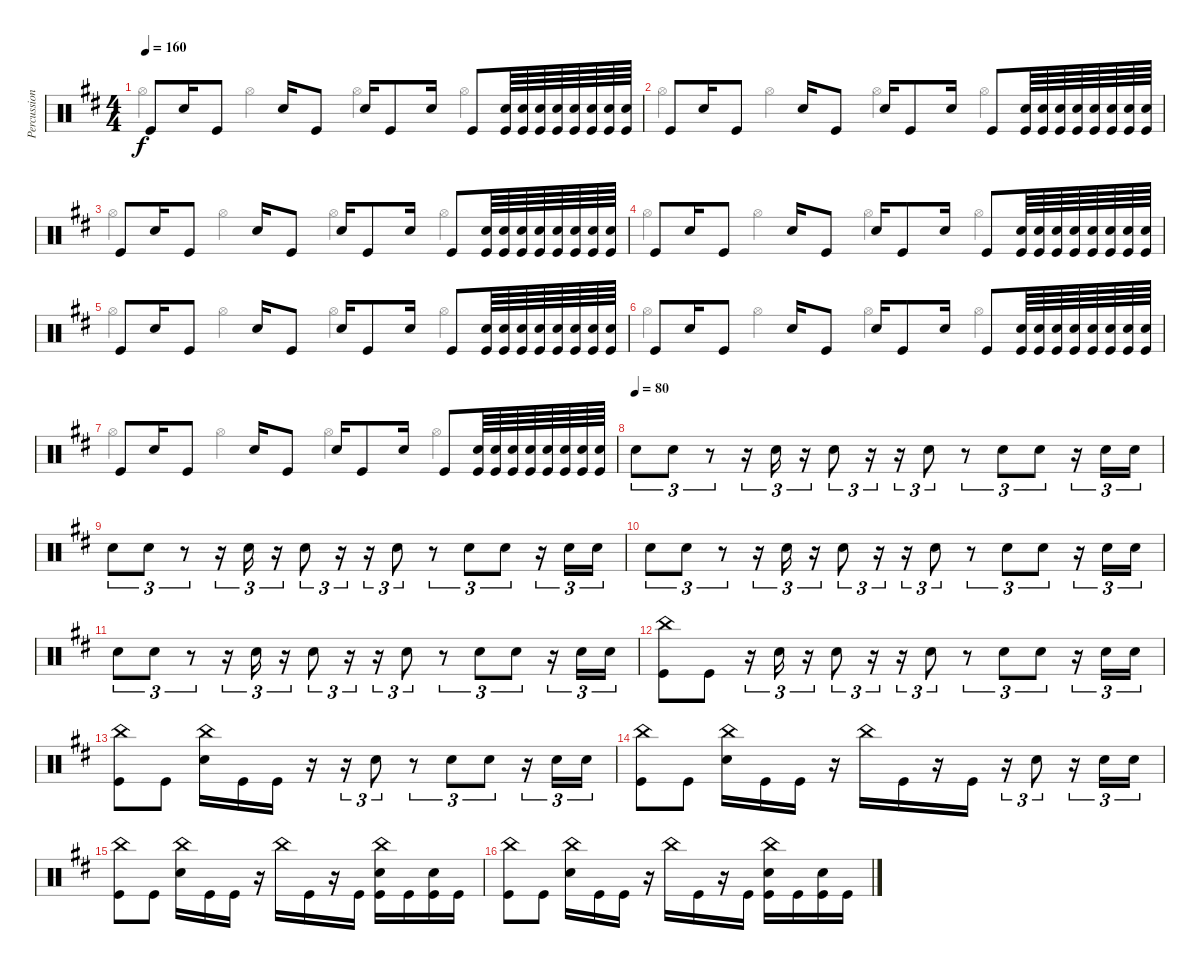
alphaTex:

\track ("Percussion" "Percussion") {instrument percussion}
\staff {score}
\articulation defaults
\voice
\ts (4 4)
\tempo 160
\clef neutral
\ks bminor "Kick (hit)".8{dy f} "Snare (hit) 2".16 "Kick (hit)".8 "Snare (hit) 2".16 "Kick (hit)".8 "Snare (hit) 2".16 "Kick (hit)".8 "Snare (hit) 2".16 "Kick (hit)".8
("Snare (hit) 2" "Kick (hit)").64 ("Snare (hit) 2" "Kick (hit)").64 ("Snare (hit) 2" "Kick (hit)").64 ("Snare (hit) 2" "Kick (hit)").64 ("Snare (hit) 2" "Kick (hit)").64 ("Snare (hit) 2" "Kick (hit)").64 ("Snare (hit) 2" "Kick (hit)").64 ("Snare (hit) 2" "Kick (hit)").64 |
"Kick (hit)".8 "Snare (hit) 2".16 "Kick (hit)".8 "Snare (hit) 2".16 "Kick (hit)".8 "Snare (hit) 2".16 "Kick (hit)".8 "Snare (hit) 2".16 "Kick (hit)".8 ("Snare (hit) 2" "Kick (hit)").64 ("Snare (hit) 2" "Kick (hit)").64 ("Snare (hit) 2" "Kick (hit)").64 ("Snare (hit) 2" "Kick (hit)").64 ("Snare (hit) 2" "Kick (hit)").64 ("Snare (hit) 2" "Kick (hit)").64 ("Snare (hit) 2" "Kick (hit)").64 ("Snare (hit) 2" "Kick (hit)").64 |
"Kick (hit)".8 "Snare (hit) 2".16 "Kick (hit)".8 "Snare (hit) 2".16 "Kick (hit)".8 "Snare (hit) 2".16 "Kick (hit)".8 "Snare (hit) 2".16 "Kick (hit)".8 ("Snare (hit) 2" "Kick (hit)").64 ("Snare (hit) 2" "Kick (hit)").64 ("Snare (hit) 2" "Kick (hit)").64 ("Snare (hit) 2" "Kick (hit)").64 ("Snare (hit) 2" "Kick (hit)").64 ("Snare (hit) 2" "Kick (hit)").64 ("Snare (hit) 2" "Kick (hit)").64 ("Snare (hit) 2" "Kick (hit)").64 |
"Kick (hit)".8 "Snare (hit) 2".16 "Kick (hit)".8 "Snare (hit) 2".16 "Kick (hit)".8 "Snare (hit) 2".16 "Kick (hit)".8 "Snare (hit) 2".16 "Kick (hit)".8 ("Snare (hit) 2" "Kick (hit)").64 ("Snare (hit) 2" "Kick (hit)").64 ("Snare (hit) 2" "Kick (hit)").64 ("Snare (hit) 2" "Kick (hit)").64 ("Snare (hit) 2" "Kick (hit)").64 ("Snare (hit) 2" "Kick (hit)").64 ("Snare (hit) 2" "Kick (hit)").64 ("Snare (hit) 2" "Kick (hit)").64 |
"Kick (hit)".8 "Snare (hit) 2".16 "Kick (hit)".8 "Snare (hit) 2".16 "Kick (hit)".8 "Snare (hit) 2".16 "Kick (hit)".8 "Snare (hit) 2".16 "Kick (hit)".8 ("Snare (hit) 2" "Kick (hit)").64 ("Snare (hit) 2" "Kick (hit)").64 ("Snare (hit) 2" "Kick (hit)").64 ("Snare (hit) 2" "Kick (hit)").64 ("Snare (hit) 2" "Kick (hit)").64 ("Snare (hit) 2" "Kick (hit)").64 ("Snare (hit) 2" "Kick (hit)").64 ("Snare (hit) 2" "Kick (hit)").64 |
"Kick (hit)".8 "Snare (hit) 2".16 "Kick (hit)".8 "Snare (hit) 2".16 "Kick (hit)".8 "Snare (hit) 2".16 "Kick (hit)".8 "Snare (hit) 2".16 "Kick (hit)".8 ("Snare (hit) 2" "Kick (hit)").64 ("Snare (hit) 2" "Kick (hit)").64 ("Snare (hit) 2" "Kick (hit)").64 ("Snare (hit) 2" "Kick (hit)").64 ("Snare (hit) 2" "Kick (hit)").64 ("Snare (hit) 2" "Kick (hit)").64 ("Snare (hit) 2" "Kick (hit)").64 ("Snare (hit) 2" "Kick (hit)").64 |
"Kick (hit)".8 "Snare (hit) 2".16 "Kick (hit)".8 "Snare (hit) 2".16 "Kick (hit)".8 "Snare (hit) 2".16 "Kick (hit)".8 "Snare (hit) 2".16 "Kick (hit)".8 ("Snare (hit) 2" "Kick (hit)").64 ("Snare (hit) 2" "Kick (hit)").64 ("Snare (hit) 2" "Kick (hit)").64 ("Snare (hit) 2" "Kick (hit)").64 ("Snare (hit) 2" "Kick (hit)").64 ("Snare (hit) 2" "Kick (hit)").64 ("Snare (hit) 2" "Kick (hit)").64 ("Snare (hit) 2" "Kick (hit)").64 |
\tempo (80)
"Snare (hit) 2".8{tu (3 2)} "Snare (hit) 2".8{tu (3 2)} r.8{tu (3 2)} r.16{tu (3 2)} "Snare (hit) 2".16{tu (3 2)} r.16{tu (3 2)} "Snare (hit) 2".8{tu (3 2)} r.16{tu (3 2)} r.16{tu (3 2)} "Snare (hit) 2".8{tu (3 2)} r.8{tu (3 2)} "Snare (hit) 2".8{tu (3 2)} "Snare (hit) 2".8{tu (3 2)} r.16{tu (3 2)} "Snare (hit) 2".16{tu (3 2)} "Snare (hit) 2".16{tu (3 2)} |
"Snare (hit) 2".8{tu (3 2)} "Snare (hit) 2".8{tu (3 2)} r.8{tu (3 2)} r.16{tu (3 2)} "Snare (hit) 2".16{tu (3 2)} r.16{tu (3 2)} "Snare (hit) 2".8{tu (3 2)} r.16{tu (3 2)} r.16{tu (3 2)} "Snare (hit) 2".8{tu (3 2)} r.8{tu (3 2)} "Snare (hit) 2".8{tu (3 2)} "Snare (hit) 2".8{tu (3 2)} r.16{tu (3 2)} "Snare (hit) 2".16{tu (3 2)} "Snare (hit) 2".16{tu (3 2)} |
"Snare (hit) 2".8{tu (3 2)} "Snare (hit) 2".8{tu (3 2)} r.8{tu (3 2)} r.16{tu (3 2)} "Snare (hit) 2".16{tu (3 2)} r.16{tu (3 2)} "Snare (hit) 2".8{tu (3 2)} r.16{tu (3 2)} r.16{tu (3 2)} "Snare (hit) 2".8{tu (3 2)} r.8{tu (3 2)} "Snare (hit) 2".8{tu (3 2)} "Snare (hit) 2".8{tu (3 2)} r.16{tu (3 2)} "Snare (hit) 2".16{tu (3 2)} "Snare (hit) 2".16{tu (3 2)} |
"Snare (hit) 2".8{tu (3 2)} "Snare (hit) 2".8{tu (3 2)} r.8{tu (3 2)} r.16{tu (3 2)} "Snare (hit) 2".16{tu (3 2)} r.16{tu (3 2)} "Snare (hit) 2".8{tu (3 2)} r.16{tu (3 2)} r.16{tu (3 2)} "Snare (hit) 2".8{tu (3 2)} r.8{tu (3 2)} "Snare (hit) 2".8{tu (3 2)} "Snare (hit) 2".8{tu (3 2)} r.16{tu (3 2)} "Snare (hit) 2".16{tu (3 2)} "Snare (hit) 2".16{tu (3 2)} |
("China (hit)" "Kick (hit)").8 "Kick (hit)".8 r.16{tu (3 2)} "Snare (hit) 2".16{tu (3 2)} r.16{tu (3 2)} "Snare (hit) 2".8{tu (3 2)} r.16{tu (3 2)} r.16{tu (3 2)} "Snare (hit) 2".8{tu (3 2)} r.8{tu (3 2)} "Snare (hit) 2".8{tu (3 2)} "Snare (hit) 2".8{tu (3 2)} r.16{tu (3 2)} "Snare (hit) 2".16{tu (3 2)} "Snare (hit) 2".16{tu (3 2)} |
("China (hit)" "Kick (hit)").8 "Kick (hit)".8 ("China (hit)" "Snare (hit) 2").16 "Kick (hit)".16 "Kick (hit)".16 r.16 r.16{tu (3 2)} "Snare (hit) 2".8{tu (3 2)} r.8{tu (3 2)} "Snare (hit) 2".8{tu (3 2)} "Snare (hit) 2".8{tu (3 2)} r.16{tu (3 2)} "Snare (hit) 2".16{tu (3 2)} "Snare (hit) 2".16{tu (3 2)} |
("China (hit)" "Kick (hit)").8 "Kick (hit)".8 ("China (hit)" "Snare (hit) 2").16 "Kick (hit)".16 "Kick (hit)".16 r.16 "China (hit)".16 "Kick (hit)".16 r.16 "Kick (hit)".16 r.16{tu (3 2)} "Snare (hit) 2".8{tu (3 2)} r.16{tu (3 2)} "Snare (hit) 2".16{tu (3 2)} "Snare (hit) 2".16{tu (3 2)} |
("China (hit)" "Kick (hit)").8 "Kick (hit)".8 ("China (hit)" "Snare (hit) 2").16 "Kick (hit)".16 "Kick (hit)".16 r.16 "China (hit)".16 "Kick (hit)".16 r.16 "Kick (hit)".16 ("China (hit)" "Kick (hit)" "Snare (hit) 2").16 "Kick (hit)".16 ("Kick (hit)" "Snare (hit) 2").16 "Kick (hit)".16 |
("China (hit)" "Kick (hit)").8 "Kick (hit)".8 ("China (hit)" "Snare (hit) 2").16 "Kick (hit)".16 "Kick (hit)".16 r.16 "China (hit)".16 "Kick (hit)".16 r.16 "Kick (hit)".16 ("China (hit)" "Kick (hit)" "Snare (hit) 2").16 "Kick (hit)".16 ("Kick (hit)" "Snare (hit) 2").16 "Kick (hit)".16
\voice
\clef neutral
\ottava regular
\simile none
\ks bminor "Hi-Hat (open)".4{dy f} "Hi-Hat (open)".4 "Hi-Hat (open)".4 "Hi-Hat (open)".4
|
"Hi-Hat (open)".4 "Hi-Hat (open)".4 "Hi-Hat (open)".4 "Hi-Hat (open)".4 |
"Hi-Hat (open)".4 "Hi-Hat (open)".4 "Hi-Hat (open)".4 "Hi-Hat (open)".4 |
"Hi-Hat (open)".4 "Hi-Hat (open)".4 "Hi-Hat (open)".4 "Hi-Hat (open)".4 |
"Hi-Hat (open)".4 "Hi-Hat (open)".4 "Hi-Hat (open)".4 "Hi-Hat (open)".4 |
"Hi-Hat (open)".4 "Hi-Hat (open)".4 "Hi-Hat (open)".4 "Hi-Hat (open)".4 |
"Hi-Hat (open)".4 "Hi-Hat (open)".4 "Hi-Hat (open)".4 "Hi-Hat (open)".4 |
|
|
|
|
|
|
|
|
